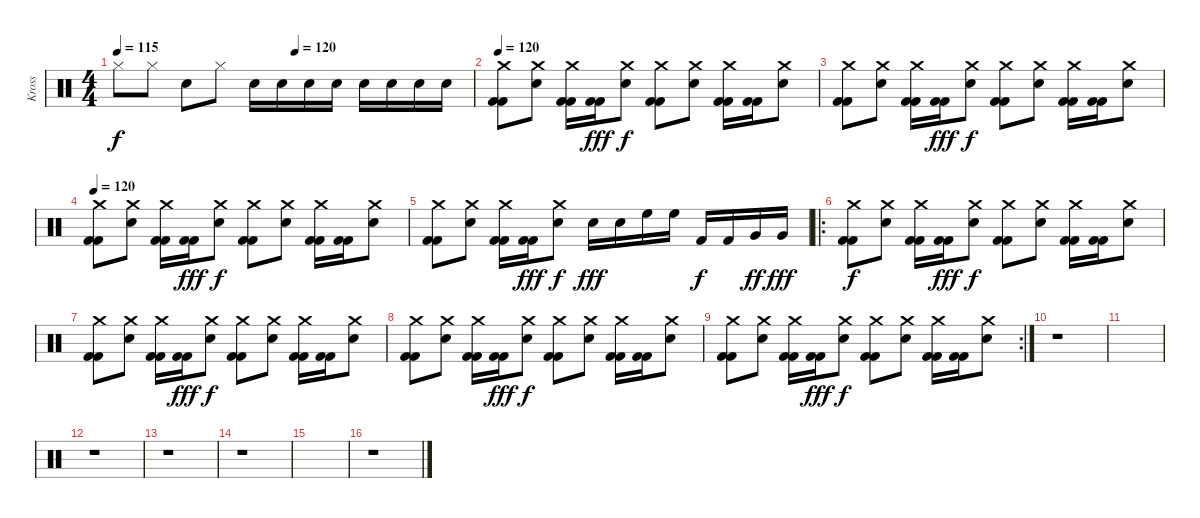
\track ("Kross" "Kross") {instrument percussion}
\staff {score}
\articulation defaults
\ts (4 4)
\tempo (120 0.5)
\tempo 115
\clef neutral
\ks c "Hi-Hat (closed)".8{dy f} "Hi-Hat (closed)".8 "Snare (hit) 2".8 "Hi-Hat (closed)".8 "Snare (hit) 2".16 "Snare (hit) 2".16 "Snare (hit) 2".16 "Snare (hit) 2".16 "Snare (hit) 2".16 "Snare (hit) 2".16 "Snare (hit) 2".16 "Snare (hit) 2".16
|
\tempo 120
("Kick (hit) 2" "Kick (hit) 2" "Crash medium (hit)").8 ("Crash medium (hit)" "Snare (hit) 2").8 ("Kick (hit) 2" "Kick (hit) 2" "Crash medium (hit)").16 ("Kick (hit) 2" "Kick (hit) 2").16{dy fff} ("Crash medium (hit)" "Snare (hit) 2").8{dy f} ("Kick (hit) 2" "Kick (hit) 2" "Crash medium (hit)").8 ("Crash medium (hit)" "Snare (hit) 2").8 ("Kick (hit) 2" "Kick (hit) 2" "Crash medium (hit)").16 ("Kick (hit) 2" "Kick (hit) 2").16 ("Crash medium (hit)" "Snare (hit) 2").8 |
("Kick (hit) 2" "Kick (hit) 2" "Crash medium (hit)").8 ("Crash medium (hit)" "Snare (hit) 2").8 ("Kick (hit) 2" "Kick (hit) 2" "Crash medium (hit)").16 ("Kick (hit) 2" "Kick (hit) 2").16{dy fff} ("Crash medium (hit)" "Snare (hit) 2").8{dy f} ("Kick (hit) 2" "Kick (hit) 2" "Crash medium (hit)").8 ("Crash medium (hit)" "Snare (hit) 2").8 ("Kick (hit) 2" "Kick (hit) 2" "Crash medium (hit)").16 ("Kick (hit) 2" "Kick (hit) 2").16 ("Crash medium (hit)" "Snare (hit) 2").8 |
\tempo 120
("Kick (hit) 2" "Kick (hit) 2" "Crash medium (hit)").8 ("Crash medium (hit)" "Snare (hit) 2").8 ("Kick (hit) 2" "Kick (hit) 2" "Crash medium (hit)").16 ("Kick (hit) 2" "Kick (hit) 2").16{dy fff} ("Crash medium (hit)" "Snare (hit) 2").8{dy f} ("Kick (hit) 2" "Kick (hit) 2" "Crash medium (hit)").8 ("Crash medium (hit)" "Snare (hit) 2").8 ("Kick (hit) 2" "Kick (hit) 2" "Crash medium (hit)").16 ("Kick (hit) 2" "Kick (hit) 2").16 ("Crash medium (hit)" "Snare (hit) 2").8 |
("Kick (hit) 2" "Kick (hit) 2" "Crash medium (hit)").8 ("Crash medium (hit)" "Snare (hit) 2").8 ("Kick (hit) 2" "Kick (hit) 2" "Crash medium (hit)").16 ("Kick (hit) 2" "Kick (hit) 2").16{dy fff} ("Crash medium (hit)" "Snare (hit) 2").8{dy f} "Snare (hit) 2".16{dy fff} "Snare (hit) 2".16 "High Floor Tom (hit)".16 "High Floor Tom (hit)".16 "Kick (hit) 2".16{dy f} "Kick (hit) 2".16 "Very Low Tom (hit)".16{dy ff} "Very Low Tom (hit)".16{dy fff} |
\ro
("Kick (hit) 2" "Kick (hit) 2" "Crash medium (hit)").8{dy f} ("Crash medium (hit)" "Snare (hit) 2").8 ("Kick (hit) 2" "Kick (hit) 2" "Crash medium (hit)").16 ("Kick (hit) 2" "Kick (hit) 2").16{dy fff} ("Crash medium (hit)" "Snare (hit) 2").8{dy f} ("Kick (hit) 2" "Kick (hit) 2" "Crash medium (hit)").8 ("Crash medium (hit)" "Snare (hit) 2").8 ("Kick (hit) 2" "Kick (hit) 2" "Crash medium (hit)").16 ("Kick (hit) 2" "Kick (hit) 2").16 ("Crash medium (hit)" "Snare (hit) 2").8 |
("Kick (hit) 2" "Kick (hit) 2" "Crash medium (hit)").8 ("Crash medium (hit)" "Snare (hit) 2").8 ("Kick (hit) 2" "Kick (hit) 2" "Crash medium (hit)").16 ("Kick (hit) 2" "Kick (hit) 2").16{dy fff} ("Crash medium (hit)" "Snare (hit) 2").8{dy f} ("Kick (hit) 2" "Kick (hit) 2" "Crash medium (hit)").8 ("Crash medium (hit)" "Snare (hit) 2").8 ("Kick (hit) 2" "Kick (hit) 2" "Crash medium (hit)").16 ("Kick (hit) 2" "Kick (hit) 2").16 ("Crash medium (hit)" "Snare (hit) 2").8 |
("Kick (hit) 2" "Kick (hit) 2" "Crash medium (hit)").8 ("Crash medium (hit)" "Snare (hit) 2").8 ("Kick (hit) 2" "Kick (hit) 2" "Crash medium (hit)").16 ("Kick (hit) 2" "Kick (hit) 2").16{dy fff} ("Crash medium (hit)" "Snare (hit) 2").8{dy f} ("Kick (hit) 2" "Kick (hit) 2" "Crash medium (hit)").8 ("Crash medium (hit)" "Snare (hit) 2").8 ("Kick (hit) 2" "Kick (hit) 2" "Crash medium (hit)").16 ("Kick (hit) 2" "Kick (hit) 2").16 ("Crash medium (hit)" "Snare (hit) 2").8 |
\rc 2
("Kick (hit) 2" "Kick (hit) 2" "Crash medium (hit)").8 ("Crash medium (hit)" "Snare (hit) 2").8 ("Kick (hit) 2" "Kick (hit) 2" "Crash medium (hit)").16 ("Kick (hit) 2" "Kick (hit) 2").16{dy fff} ("Crash medium (hit)" "Snare (hit) 2").8{dy f} ("Kick (hit) 2" "Kick (hit) 2" "Crash medium (hit)").8 ("Crash medium (hit)" "Snare (hit) 2").8 ("Kick (hit) 2" "Kick (hit) 2" "Crash medium (hit)").16 ("Kick (hit) 2" "Kick (hit) 2").16 ("Crash medium (hit)" "Snare (hit) 2").8 |
r.1 |
|
r.1 |
r.1 |
r.1 |
|
r.1
